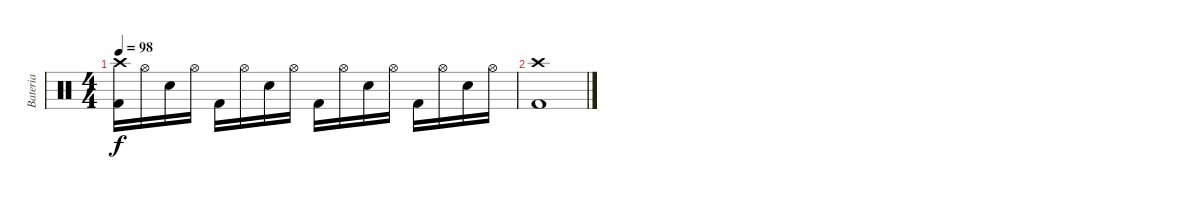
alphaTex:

\track ("Bateria" "Bateria") {instrument percussion}
\staff {score}
\articulation defaults
\ts (4 4)
\tempo 98
\clef neutral
\ks c
("Crash high (hit)" "Kick (hit) 2").16{dy f} "Hi-Hat (open)".16 "Snare (hit) 2".16 "Hi-Hat (open)".16 "Kick (hit) 2".16 "Hi-Hat (open)".16 "Snare (hit) 2".16 "Hi-Hat (open)".16 "Kick (hit) 2".16 "Hi-Hat (open)".16 "Snare (hit) 2".16 "Hi-Hat (open)".16 "Kick (hit) 2".16 "Hi-Hat (open)".16 "Snare (hit) 2".16 "Hi-Hat (open)".16 |
("Crash high (hit)" "Kick (hit) 2").1
